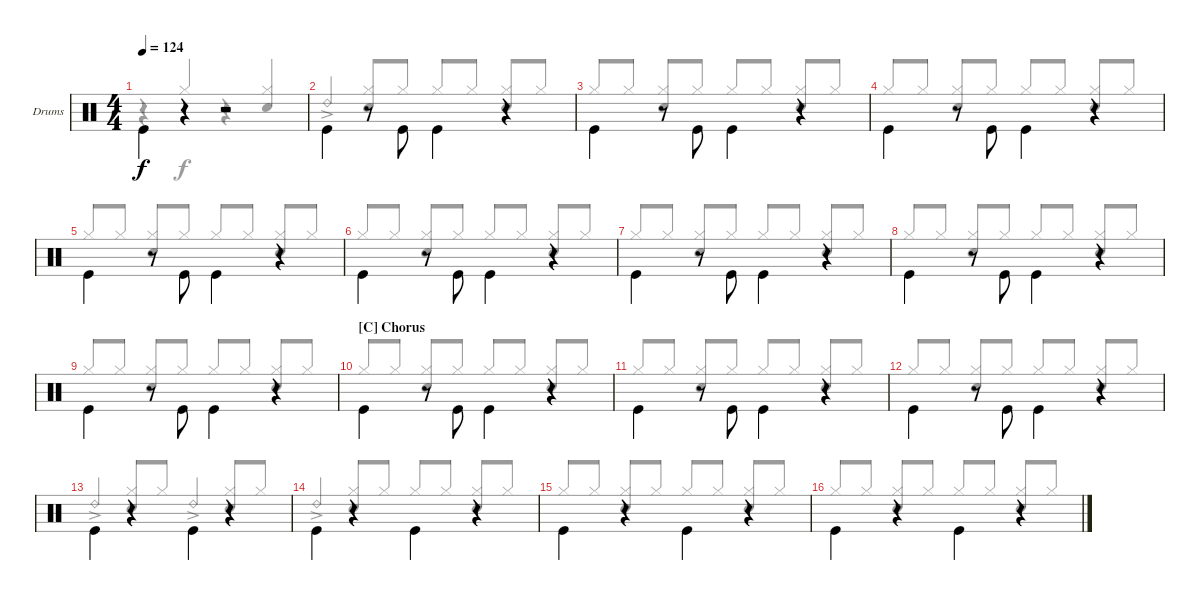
\bracketExtendMode groupsimilarinstruments
\firstSystemTrackNameOrientation horizontal
\otherSystemsTrackNameOrientation horizontal
\track ("Drums" "Drums") {instrument percussion}
\staff {score}
\articulation defaults
\voice
\ts (4 4)
\tempo 124
\clef neutral
\scale
1.02648
\ks c "Kick (hit)".4{dy f beam invert}
r.4 r.2 |
\scale
0.973518 "Kick (hit)".4{beam invert} r.8 "Kick (hit)".8{beam invert} "Kick (hit)".4{beam invert} r.4 |
\scale
1.02648 "Kick (hit)".4{beam invert} r.8 "Kick (hit)".8{beam invert} "Kick (hit)".4{beam invert} r.4 |
\scale
0.973518 "Kick (hit)".4{beam invert} r.8 "Kick (hit)".8{beam invert} "Kick (hit)".4{beam invert} r.4 |
\scale
1.02648 "Kick (hit)".4{beam invert} r.8 "Kick (hit)".8{beam invert} "Kick (hit)".4{beam invert} r.4 |
\scale
0.973518 "Kick (hit)".4{beam invert} r.8 "Kick (hit)".8{beam invert} "Kick (hit)".4{beam invert} r.4 |
\scale
1.02648 "Kick (hit)".4{beam invert} r.8 "Kick (hit)".8{beam invert} "Kick (hit)".4{beam invert} r.4 |
\scale
0.973518 "Kick (hit)".4{beam invert} r.8 "Kick (hit)".8{beam invert} "Kick (hit)".4{beam invert} r.4 |
\scale
1.02648 "Kick (hit)".4{beam invert} r.8 "Kick (hit)".8{beam invert} "Kick (hit)".4{beam invert} r.4 |
\section ("C" "Chorus")
\scale
0.973518 "Kick (hit)".4{beam invert} r.8 "Kick (hit)".8{beam invert} "Kick (hit)".4{beam invert} r.4 |
\scale
1.02648 "Kick (hit)".4{beam invert} r.8 "Kick (hit)".8{beam invert} "Kick (hit)".4{beam invert} r.4 |
\scale
0.973518 "Kick (hit)".4{beam invert} r.8 "Kick (hit)".8{beam invert} "Kick (hit)".4{beam invert} r.4 |
\scale
1.02648 "Kick (hit)".4{beam invert} r.4 "Kick (hit)".4{beam invert} r.4 |
\scale
0.973518 "Kick (hit)".4{beam invert} r.4 "Kick (hit)".4{beam invert} r.4 |
\scale
1.02648 "Kick (hit)".4{beam invert} r.4 "Kick (hit)".4{beam invert} r.4 |
\scale
0.973518 "Kick (hit)".4{beam invert} r.4 "Kick (hit)".4{beam invert} r.4
\voice
\clef neutral
\ottava regular
\simile none
\scale
1.02648
\ks c
r.4{dy f} "Hi-Hat (closed)".4{beam invert} r.4 ("Hi-Hat (closed)" "Snare (hit) 2").4{beam invert} |
\scale
0.973518 "Ride (bell) 2"{ac}.4{beam invert} ("Hi-Hat (closed)" "Snare (hit) 2").8{beam invert} "Hi-Hat (closed)".8 "Hi-Hat (closed)".8{beam invert} "Hi-Hat (closed)".8 ("Hi-Hat (closed)" "Snare (hit) 2").8{beam invert} "Hi-Hat (closed)".8 |
\scale
1.02648 "Hi-Hat (closed)".8{beam invert} "Hi-Hat (closed)".8 ("Hi-Hat (closed)" "Snare (hit) 2").8{beam invert} "Hi-Hat (closed)".8 "Hi-Hat (closed)".8{beam invert} "Hi-Hat (closed)".8 ("Hi-Hat (closed)" "Snare (hit) 2").8{beam invert} "Hi-Hat (closed)".8 |
\scale
0.973518 "Hi-Hat (closed)".8{beam invert} "Hi-Hat (closed)".8 ("Hi-Hat (closed)" "Snare (hit) 2").8{beam invert} "Hi-Hat (closed)".8 "Hi-Hat (closed)".8{beam invert} "Hi-Hat (closed)".8 ("Hi-Hat (closed)" "Snare (hit) 2").8{beam invert} "Hi-Hat (closed)".8 |
\scale
1.02648 "Hi-Hat (closed)".8{beam invert} "Hi-Hat (closed)".8 ("Hi-Hat (closed)" "Snare (hit) 2").8{beam invert} "Hi-Hat (closed)".8 "Hi-Hat (closed)".8{beam invert} "Hi-Hat (closed)".8 ("Hi-Hat (closed)" "Snare (hit) 2").8{beam invert} "Hi-Hat (closed)".8 |
\scale
0.973518 "Hi-Hat (closed)".8{beam invert} "Hi-Hat (closed)".8 ("Hi-Hat (closed)" "Snare (hit) 2").8{beam invert} "Hi-Hat (closed)".8 "Hi-Hat (closed)".8{beam invert} "Hi-Hat (closed)".8 ("Hi-Hat (closed)" "Snare (hit) 2").8{beam invert} "Hi-Hat (closed)".8 |
\scale
1.02648 "Hi-Hat (closed)".8{beam invert} "Hi-Hat (closed)".8 ("Hi-Hat (closed)" "Snare (hit) 2").8{beam invert} "Hi-Hat (closed)".8 "Hi-Hat (closed)".8{beam invert} "Hi-Hat (closed)".8 ("Hi-Hat (closed)" "Snare (hit) 2").8{beam invert} "Hi-Hat (closed)".8 |
\scale
0.973518 "Hi-Hat (closed)".8{beam invert} "Hi-Hat (closed)".8 ("Hi-Hat (closed)" "Snare (hit) 2").8{beam invert} "Hi-Hat (closed)".8 "Hi-Hat (closed)".8{beam invert} "Hi-Hat (closed)".8 ("Hi-Hat (closed)" "Snare (hit) 2").8{beam invert} "Hi-Hat (closed)".8 |
\scale
1.02648 "Hi-Hat (closed)".8{beam invert} "Hi-Hat (closed)".8 ("Hi-Hat (closed)" "Snare (hit) 2").8{beam invert} "Hi-Hat (closed)".8 "Hi-Hat (closed)".8{beam invert} "Hi-Hat (closed)".8 ("Hi-Hat (closed)" "Snare (hit) 2").8{beam invert} "Hi-Hat (closed)".8 |
\scale
0.973518 "Hi-Hat (closed)".8{beam invert} "Hi-Hat (closed)".8 ("Hi-Hat (closed)" "Snare (hit) 2").8{beam invert} "Hi-Hat (closed)".8 "Hi-Hat (closed)".8{beam invert} "Hi-Hat (closed)".8 ("Hi-Hat (closed)" "Snare (hit) 2").8{beam invert} "Hi-Hat (closed)".8 |
\scale
1.02648 "Hi-Hat (closed)".8{beam invert} "Hi-Hat (closed)".8 ("Hi-Hat (closed)" "Snare (hit) 2").8{beam invert} "Hi-Hat (closed)".8 "Hi-Hat (closed)".8{beam invert} "Hi-Hat (closed)".8 ("Hi-Hat (closed)" "Snare (hit) 2").8{beam invert} "Hi-Hat (closed)".8 |
\scale
0.973518 "Hi-Hat (closed)".8{beam invert} "Hi-Hat (closed)".8 ("Hi-Hat (closed)" "Snare (hit) 2").8{beam invert} "Hi-Hat (closed)".8 "Hi-Hat (closed)".8{beam invert} "Hi-Hat (closed)".8 ("Hi-Hat (closed)" "Snare (hit) 2").8{beam invert} "Hi-Hat (closed)".8 |
\scale
1.02648 "Ride (bell) 2"{ac}.4{beam invert} ("Hi-Hat (closed)" "Snare (hit) 2").8{beam invert} "Hi-Hat (closed)".8 "Ride (bell) 2"{ac}.4{beam invert} ("Hi-Hat (closed)" "Snare (hit) 2").8{beam invert} "Hi-Hat (closed)".8 |
\scale
0.973518 "Ride (bell) 2"{ac}.4{beam invert} ("Hi-Hat (closed)" "Snare (hit) 2").8{beam invert} "Hi-Hat (closed)".8 "Hi-Hat (closed)".8{beam invert} "Hi-Hat (closed)".8 ("Hi-Hat (closed)" "Snare (hit) 2").8{beam invert} "Hi-Hat (closed)".8 |
\scale
1.02648 "Hi-Hat (closed)".8{beam invert} "Hi-Hat (closed)".8 ("Hi-Hat (closed)" "Snare (hit) 2").8{beam invert} "Hi-Hat (closed)".8 "Hi-Hat (closed)".8{beam invert} "Hi-Hat (closed)".8 ("Hi-Hat (closed)" "Snare (hit) 2").8{beam invert} "Hi-Hat (closed)".8 |
\scale
0.973518 "Hi-Hat (closed)".8{beam invert} "Hi-Hat (closed)".8 ("Hi-Hat (closed)" "Snare (hit) 2").8{beam invert} "Hi-Hat (closed)".8 "Hi-Hat (closed)".8{beam invert} "Hi-Hat (closed)".8 ("Hi-Hat (closed)" "Snare (hit) 2").8{beam invert} "Hi-Hat (closed)".8
